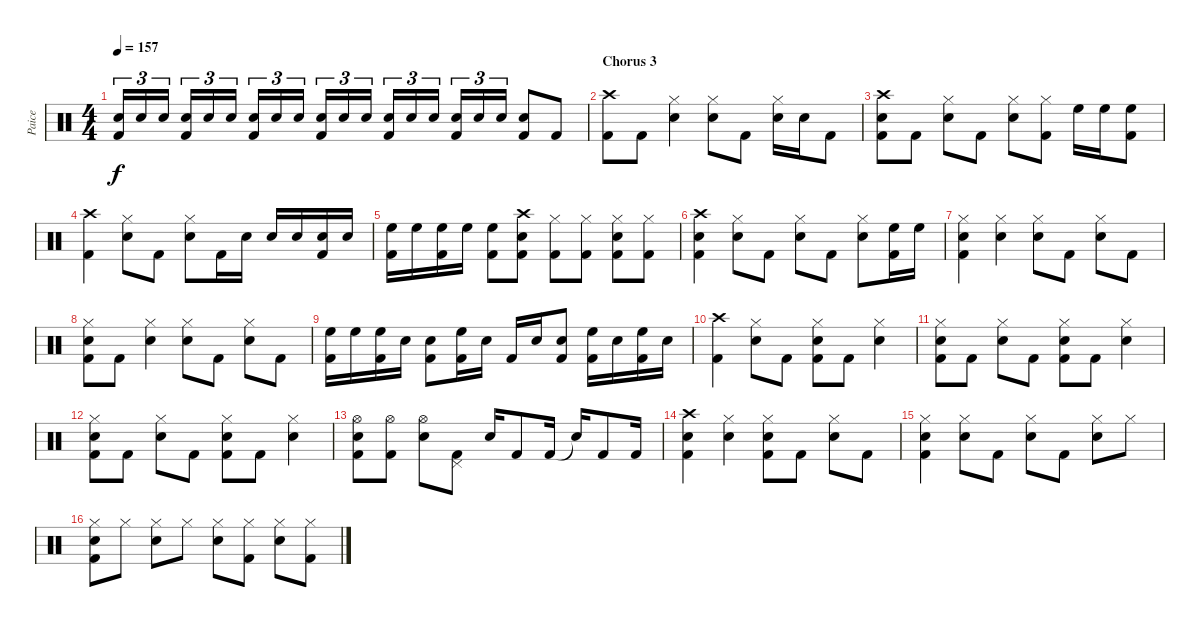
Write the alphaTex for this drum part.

\track ("Paice" "Paice") {instrument percussion}
\staff {score}
\articulation defaults
\ts (4 4)
\tempo 157
\clef neutral
\ks c
("Snare (hit) 2" "Kick (hit) 2").16{tu (3 2) dy f} "Snare (hit) 2".16{tu (3 2)} "Snare (hit) 2".16{tu (3 2)} ("Snare (hit) 2" "Kick (hit) 2").16{tu (3 2)} "Snare (hit) 2".16{tu (3 2)} "Snare (hit) 2".16{tu (3 2)} ("Snare (hit) 2" "Kick (hit) 2").16{tu (3 2)} "Snare (hit) 2".16{tu (3 2)} "Snare (hit) 2".16{tu (3 2)} ("Snare (hit) 2" "Kick (hit) 2").16{tu (3 2)} "Snare (hit) 2".16{tu (3 2)} "Snare (hit) 2".16{tu (3 2)} ("Snare (hit) 2" "Kick (hit) 2").16{tu (3 2)} "Snare (hit) 2".16{tu (3 2)} "Snare (hit) 2".16{tu (3 2)} ("Snare (hit) 2" "Kick (hit) 2").16{tu (3 2)} "Snare (hit) 2".16{tu (3 2)} "Snare (hit) 2".16{tu (3 2)} ("Snare (hit) 2" "Kick (hit) 2").8 "Kick (hit) 2".8 |
\section ("" "Chorus 3")
("Crash high (hit)" "Kick (hit) 2").8 "Kick (hit) 2".8 ("Hi-Hat (closed)" "Snare (hit) 2").4 ("Hi-Hat (closed)" "Snare (hit) 2").8 "Kick (hit) 2".8 ("Hi-Hat (closed)" "Snare (hit) 2").16 "Snare (hit) 2".16 "Kick (hit) 2".8 |
("Crash high (hit)" "Snare (hit) 2" "Kick (hit) 2").8 "Kick (hit) 2".8 ("Hi-Hat (closed)" "Snare (hit) 2").8 "Kick (hit) 2".8 ("Hi-Hat (closed)" "Snare (hit) 2").8 ("Hi-Hat (closed)" "Kick (hit) 2").8 "High Floor Tom (hit)".16 "High Floor Tom (hit)".16 ("High Floor Tom (hit)" "Kick (hit) 2").8 |
("Crash high (hit)" "Kick (hit) 2").4 ("Hi-Hat (closed)" "Snare (hit) 2").8 "Kick (hit) 2".8 ("Hi-Hat (closed)" "Snare (hit) 2").8 "Kick (hit) 2".16 "Snare (hit) 2".16 "Snare (hit) 2".16 "Snare (hit) 2".16 ("Snare (hit) 2" "Kick (hit) 2").16 "Snare (hit) 2".16 |
("High Floor Tom (hit)" "Kick (hit) 2").16 "High Floor Tom (hit)".16 ("High Floor Tom (hit)" "Kick (hit) 2").16 "High Floor Tom (hit)".16 ("High Floor Tom (hit)" "Kick (hit) 2").8 ("Crash high (hit)" "Snare (hit) 2" "Kick (hit) 2").8 ("Hi-Hat (closed)" "Kick (hit) 2").8 ("Hi-Hat (closed)" "Kick (hit) 2").8 ("Hi-Hat (closed)" "Snare (hit) 2" "Kick (hit) 2").8 ("Hi-Hat (closed)" "Kick (hit) 2").8 |
("Crash high (hit)" "Snare (hit) 2" "Kick (hit) 2").4 ("Hi-Hat (closed)" "Snare (hit) 2").8 "Kick (hit) 2".8 ("Hi-Hat (closed)" "Snare (hit) 2").8 "Kick (hit) 2".8 ("Hi-Hat (closed)" "Snare (hit) 2").8 ("High Floor Tom (hit)" "Kick (hit) 2").16 "High Floor Tom (hit)".16 |
("Hi-Hat (closed)" "Snare (hit) 2" "Kick (hit) 2").4 ("Hi-Hat (closed)" "Snare (hit) 2").4 ("Hi-Hat (closed)" "Snare (hit) 2").8 "Kick (hit) 2".8 ("Hi-Hat (closed)" "Snare (hit) 2").8 "Kick (hit) 2".8 |
("Hi-Hat (closed)" "Snare (hit) 2" "Kick (hit) 2").8 "Kick (hit) 2".8 ("Hi-Hat (closed)" "Snare (hit) 2").4 ("Hi-Hat (closed)" "Snare (hit) 2").8 "Kick (hit) 2".8 ("Hi-Hat (closed)" "Snare (hit) 2").8 "Kick (hit) 2".8 |
("High Floor Tom (hit)" "Kick (hit) 2").16 "High Floor Tom (hit)".16 ("High Floor Tom (hit)" "Kick (hit) 2").16 "Snare (hit) 2".16 ("Snare (hit) 2" "Kick (hit) 2").8 ("High Floor Tom (hit)" "Kick (hit) 2").16 "Snare (hit) 2".16 "Kick (hit) 2".16 "Snare (hit) 2".16 ("Snare (hit) 2" "Kick (hit) 2").8 ("High Floor Tom (hit)" "Kick (hit) 2").16 "Snare (hit) 2".16 ("High Floor Tom (hit)" "Kick (hit) 2").16 "Snare (hit) 2".16 |
("Crash high (hit)" "Kick (hit) 2").4 ("Hi-Hat (closed)" "Snare (hit) 2").8 "Kick (hit) 2".8 ("Hi-Hat (closed)" "Snare (hit) 2" "Kick (hit) 2").8 "Kick (hit) 2".8 ("Hi-Hat (closed)" "Snare (hit) 2").4 |
("Hi-Hat (closed)" "Snare (hit) 2" "Kick (hit) 2").8 "Kick (hit) 2".8 ("Hi-Hat (closed)" "Snare (hit) 2").8 "Kick (hit) 2".8 ("Hi-Hat (closed)" "Snare (hit) 2" "Kick (hit) 2").8 "Kick (hit) 2".8 ("Hi-Hat (closed)" "Snare (hit) 2").4 |
("Hi-Hat (closed)" "Snare (hit) 2" "Kick (hit) 2").8 "Kick (hit) 2".8 ("Hi-Hat (closed)" "Snare (hit) 2").8 "Kick (hit) 2".8 ("Hi-Hat (closed)" "Snare (hit) 2" "Kick (hit) 2").8 "Kick (hit) 2".8 ("Hi-Hat (closed)" "Snare (hit) 2").4 |
("Hi-Hat (open)" "Snare (hit) 2" "Kick (hit) 2").8 ("Hi-Hat (open)" "Kick (hit) 2").8 ("Hi-Hat (open)" "Snare (hit) 2").8 ("Pedal Hi-Hat (hit)" "Kick (hit) 2").8 "Snare (hit) 2".16 "Kick (hit) 2".8 "Kick (hit) 2".16 "Snare (hit)"{t}.16 "Kick (hit) 2".8 "Kick (hit) 2".16 |
("Crash high (hit)" "Snare (hit) 2" "Kick (hit) 2").4 ("Hi-Hat (closed)" "Snare (hit) 2").4 ("Hi-Hat (closed)" "Snare (hit) 2" "Kick (hit) 2").8 "Kick (hit) 2".8 ("Hi-Hat (closed)" "Snare (hit) 2").8 "Kick (hit) 2".8 |
("Hi-Hat (closed)" "Snare (hit) 2" "Kick (hit) 2").4 ("Hi-Hat (closed)" "Snare (hit) 2").8 "Kick (hit) 2".8 ("Hi-Hat (closed)" "Snare (hit) 2").8 "Kick (hit) 2".8 ("Hi-Hat (closed)" "Snare (hit) 2").8 "Hi-Hat (closed)".8 |
("Hi-Hat (closed)" "Snare (hit) 2" "Kick (hit) 2").8 "Hi-Hat (closed)".8 ("Hi-Hat (closed)" "Snare (hit) 2").8 "Hi-Hat (closed)".8 ("Hi-Hat (closed)" "Snare (hit) 2").8 ("Hi-Hat (closed)" "Kick (hit) 2").8 ("Hi-Hat (closed)" "Snare (hit) 2").8 ("Hi-Hat (closed)" "Kick (hit) 2").8
